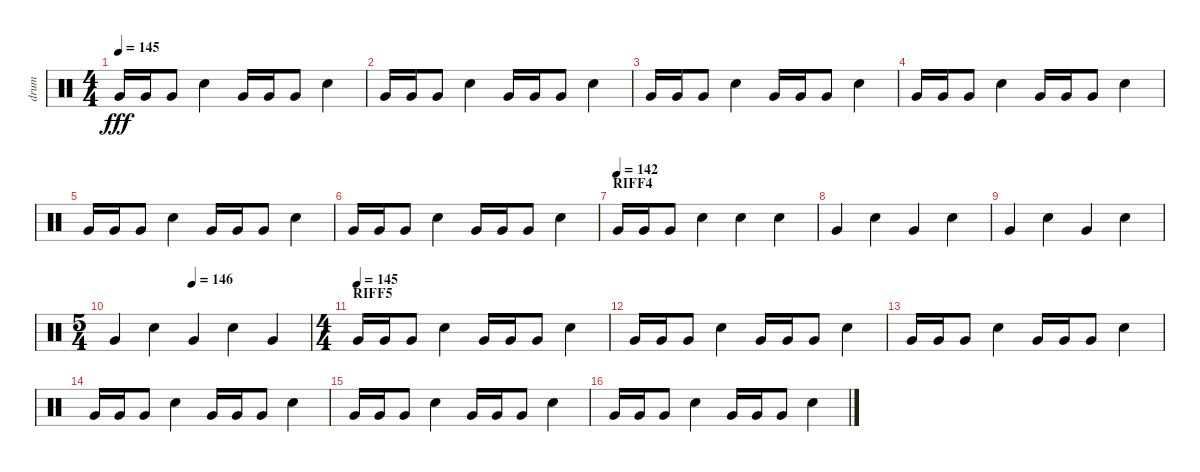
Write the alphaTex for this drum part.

\track ("drum" "drum") {instrument percussion}
\staff {score}
\articulation defaults
\ts (4 4)
\tempo 145
\clef neutral
\ks c "Very Low Tom (hit)".16{dy fff} "Very Low Tom (hit)".16 "Very Low Tom (hit)".8 "Electric Snare (hit)".4 "Very Low Tom (hit)".16 "Very Low Tom (hit)".16 "Very Low Tom (hit)".8 "Electric Snare (hit)".4
|
"Very Low Tom (hit)".16 "Very Low Tom (hit)".16 "Very Low Tom (hit)".8 "Electric Snare (hit)".4 "Very Low Tom (hit)".16 "Very Low Tom (hit)".16 "Very Low Tom (hit)".8 "Electric Snare (hit)".4 |
"Very Low Tom (hit)".16 "Very Low Tom (hit)".16 "Very Low Tom (hit)".8 "Electric Snare (hit)".4 "Very Low Tom (hit)".16 "Very Low Tom (hit)".16 "Very Low Tom (hit)".8 "Electric Snare (hit)".4 |
"Very Low Tom (hit)".16 "Very Low Tom (hit)".16 "Very Low Tom (hit)".8 "Electric Snare (hit)".4 "Very Low Tom (hit)".16 "Very Low Tom (hit)".16 "Very Low Tom (hit)".8 "Electric Snare (hit)".4 |
"Very Low Tom (hit)".16 "Very Low Tom (hit)".16 "Very Low Tom (hit)".8 "Electric Snare (hit)".4 "Very Low Tom (hit)".16 "Very Low Tom (hit)".16 "Very Low Tom (hit)".8 "Electric Snare (hit)".4 |
"Very Low Tom (hit)".16 "Very Low Tom (hit)".16 "Very Low Tom (hit)".8 "Electric Snare (hit)".4 "Very Low Tom (hit)".16 "Very Low Tom (hit)".16 "Very Low Tom (hit)".8 "Electric Snare (hit)".4 |
\section ("" "RIFF4")
\tempo (142)
"Very Low Tom (hit)".16 "Very Low Tom (hit)".16 "Very Low Tom (hit)".8 "Electric Snare (hit)".4 "Electric Snare (hit)".4 "Electric Snare (hit)".4 |
"Very Low Tom (hit)".4 "Electric Snare (hit)".4 "Very Low Tom (hit)".4 "Electric Snare (hit)".4 |
"Very Low Tom (hit)".4 "Electric Snare (hit)".4 "Very Low Tom (hit)".4 "Electric Snare (hit)".4 |
\ts (5 4)
\tempo (146 0.4)
"Very Low Tom (hit)".4 "Electric Snare (hit)".4 "Very Low Tom (hit)".4 "Electric Snare (hit)".4 "Very Low Tom (hit)".4 |
\ts (4 4)
\section ("" "RIFF5")
\tempo (145)
"Very Low Tom (hit)".16 "Very Low Tom (hit)".16 "Very Low Tom (hit)".8 "Electric Snare (hit)".4 "Very Low Tom (hit)".16 "Very Low Tom (hit)".16 "Very Low Tom (hit)".8 "Electric Snare (hit)".4 |
"Very Low Tom (hit)".16 "Very Low Tom (hit)".16 "Very Low Tom (hit)".8 "Electric Snare (hit)".4 "Very Low Tom (hit)".16 "Very Low Tom (hit)".16 "Very Low Tom (hit)".8 "Electric Snare (hit)".4 |
"Very Low Tom (hit)".16 "Very Low Tom (hit)".16 "Very Low Tom (hit)".8 "Electric Snare (hit)".4 "Very Low Tom (hit)".16 "Very Low Tom (hit)".16 "Very Low Tom (hit)".8 "Electric Snare (hit)".4 |
"Very Low Tom (hit)".16 "Very Low Tom (hit)".16 "Very Low Tom (hit)".8 "Electric Snare (hit)".4 "Very Low Tom (hit)".16 "Very Low Tom (hit)".16 "Very Low Tom (hit)".8 "Electric Snare (hit)".4 |
"Very Low Tom (hit)".16 "Very Low Tom (hit)".16 "Very Low Tom (hit)".8 "Electric Snare (hit)".4 "Very Low Tom (hit)".16 "Very Low Tom (hit)".16 "Very Low Tom (hit)".8 "Electric Snare (hit)".4 |
"Very Low Tom (hit)".16 "Very Low Tom (hit)".16 "Very Low Tom (hit)".8 "Electric Snare (hit)".4 "Very Low Tom (hit)".16 "Very Low Tom (hit)".16 "Very Low Tom (hit)".8 "Electric Snare (hit)".4
